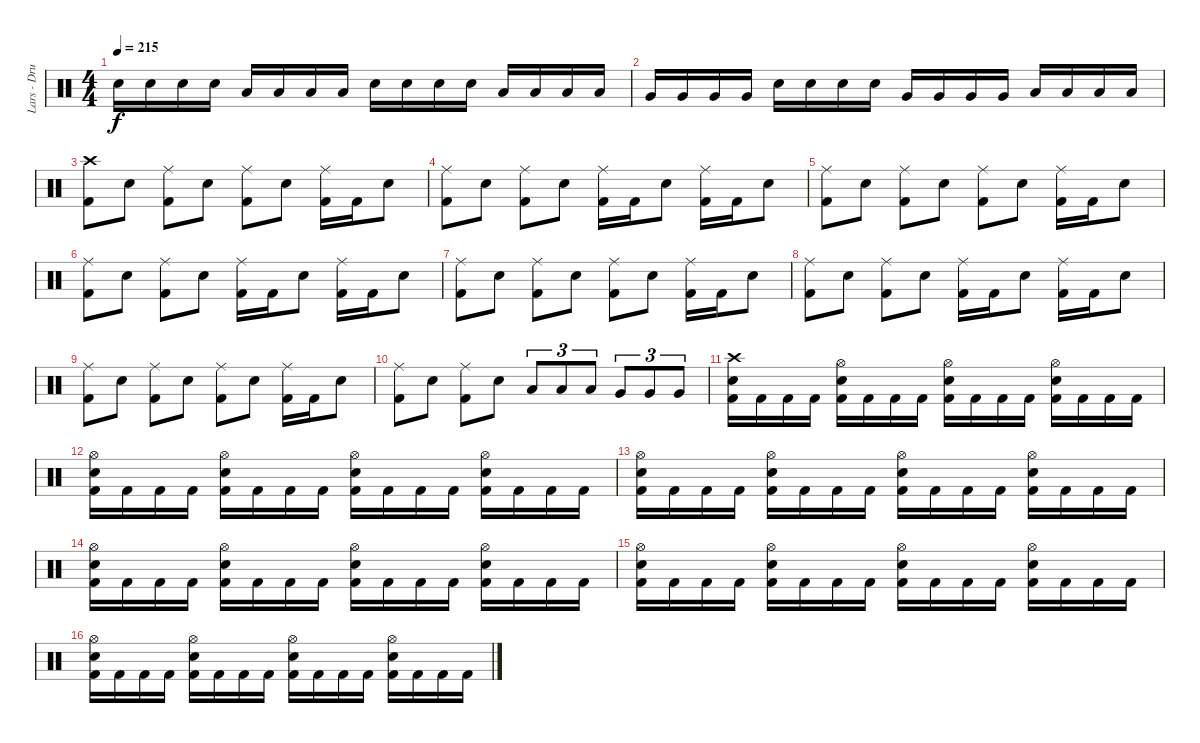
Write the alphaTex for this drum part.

\track ("Lars - Drums" "Lars - Dru") {instrument percussion}
\staff {score}
\articulation defaults
\ts (4 4)
\tempo 215
\clef neutral
\ks c "Electric Snare (hit)".16{dy f} "Electric Snare (hit)".16 "Electric Snare (hit)".16 "Electric Snare (hit)".16 "Low Tom (hit)".16 "Low Tom (hit)".16 "Low Tom (hit)".16 "Low Tom (hit)".16 "Electric Snare (hit)".16 "Electric Snare (hit)".16 "Electric Snare (hit)".16 "Electric Snare (hit)".16 "Low Tom (hit)".16 "Low Tom (hit)".16 "Low Tom (hit)".16 "Low Tom (hit)".16
|
"Very Low Tom (hit)".16 "Very Low Tom (hit)".16 "Very Low Tom (hit)".16 "Very Low Tom (hit)".16 "Electric Snare (hit)".16 "Electric Snare (hit)".16 "Electric Snare (hit)".16 "Electric Snare (hit)".16 "Very Low Tom (hit)".16 "Very Low Tom (hit)".16 "Very Low Tom (hit)".16 "Very Low Tom (hit)".16 "Low Floor Tom (hit)".16 "Low Floor Tom (hit)".16 "Low Floor Tom (hit)".16 "Low Floor Tom (hit)".16 |
("Kick (hit) 2" "Crash high (hit)").8 "Electric Snare (hit)".8 ("Kick (hit) 2" "Ride (middle)").8 "Electric Snare (hit)".8 ("Kick (hit) 2" "Ride (middle)").8 "Electric Snare (hit)".8 ("Kick (hit) 2" "Ride (middle)").16 "Kick (hit) 2".16 "Electric Snare (hit)".8 |
("Kick (hit) 2" "Ride (middle)").8 "Electric Snare (hit)".8 ("Kick (hit) 2" "Ride (middle)").8 "Electric Snare (hit)".8 ("Kick (hit) 2" "Ride (middle)").16 "Kick (hit) 2".16 "Electric Snare (hit)".8 ("Kick (hit) 2" "Ride (middle)").16 "Kick (hit) 2".16 "Electric Snare (hit)".8 |
("Kick (hit) 2" "Ride (middle)").8 "Electric Snare (hit)".8 ("Kick (hit) 2" "Ride (middle)").8 "Electric Snare (hit)".8 ("Kick (hit) 2" "Ride (middle)").8 "Electric Snare (hit)".8 ("Kick (hit) 2" "Ride (middle)").16 "Kick (hit) 2".16 "Electric Snare (hit)".8 |
("Kick (hit) 2" "Ride (middle)").8 "Electric Snare (hit)".8 ("Kick (hit) 2" "Ride (middle)").8 "Electric Snare (hit)".8 ("Kick (hit) 2" "Ride (middle)").16 "Kick (hit) 2".16 "Electric Snare (hit)".8 ("Kick (hit) 2" "Ride (middle)").16 "Kick (hit) 2".16 "Electric Snare (hit)".8 |
("Kick (hit) 2" "Ride (middle)").8 "Electric Snare (hit)".8 ("Kick (hit) 2" "Ride (middle)").8 "Electric Snare (hit)".8 ("Kick (hit) 2" "Ride (middle)").8 "Electric Snare (hit)".8 ("Kick (hit) 2" "Ride (middle)").16 "Kick (hit) 2".16 "Electric Snare (hit)".8 |
("Kick (hit) 2" "Ride (middle)").8 "Electric Snare (hit)".8 ("Kick (hit) 2" "Ride (middle)").8 "Electric Snare (hit)".8 ("Kick (hit) 2" "Ride (middle)").16 "Kick (hit) 2".16 "Electric Snare (hit)".8 ("Kick (hit) 2" "Ride (middle)").16 "Kick (hit) 2".16 "Electric Snare (hit)".8 |
("Kick (hit) 2" "Ride (middle)").8 "Electric Snare (hit)".8 ("Kick (hit) 2" "Ride (middle)").8 "Electric Snare (hit)".8 ("Kick (hit) 2" "Ride (middle)").8 "Electric Snare (hit)".8 ("Kick (hit) 2" "Ride (middle)").16 "Kick (hit) 2".16 "Electric Snare (hit)".8 |
("Kick (hit) 2" "Ride (middle)").8 "Electric Snare (hit)".8 ("Kick (hit) 2" "Ride (middle)").8 "Electric Snare (hit)".8 "Low Tom (hit)".8{tu (3 2)} "Low Tom (hit)".8{tu (3 2)} "Low Tom (hit)".8{tu (3 2)} "Very Low Tom (hit)".8{tu (3 2)} "Very Low Tom (hit)".8{tu (3 2)} "Very Low Tom (hit)".8{tu (3 2)} |
("Kick (hit) 2" "Electric Snare (hit)" "Crash high (hit)").16 "Kick (hit) 2".16 "Kick (hit) 2".16 "Kick (hit) 2".16 ("Kick (hit) 2" "Electric Snare (hit)" "Hi-Hat (open)").16 "Kick (hit) 2".16 "Kick (hit) 2".16 "Kick (hit) 2".16 ("Kick (hit) 2" "Electric Snare (hit)" "Hi-Hat (open)").16 "Kick (hit) 2".16 "Kick (hit) 2".16 "Kick (hit) 2".16 ("Kick (hit) 2" "Electric Snare (hit)" "Hi-Hat (open)").16 "Kick (hit) 2".16 "Kick (hit) 2".16 "Kick (hit) 2".16 |
("Kick (hit) 2" "Electric Snare (hit)" "Hi-Hat (open)").16 "Kick (hit) 2".16 "Kick (hit) 2".16 "Kick (hit) 2".16 ("Kick (hit) 2" "Electric Snare (hit)" "Hi-Hat (open)").16 "Kick (hit) 2".16 "Kick (hit) 2".16 "Kick (hit) 2".16 ("Kick (hit) 2" "Electric Snare (hit)" "Hi-Hat (open)").16 "Kick (hit) 2".16 "Kick (hit) 2".16 "Kick (hit) 2".16 ("Kick (hit) 2" "Electric Snare (hit)" "Hi-Hat (open)").16 "Kick (hit) 2".16 "Kick (hit) 2".16 "Kick (hit) 2".16 |
("Kick (hit) 2" "Electric Snare (hit)" "Hi-Hat (open)").16 "Kick (hit) 2".16 "Kick (hit) 2".16 "Kick (hit) 2".16 ("Kick (hit) 2" "Electric Snare (hit)" "Hi-Hat (open)").16 "Kick (hit) 2".16 "Kick (hit) 2".16 "Kick (hit) 2".16 ("Kick (hit) 2" "Electric Snare (hit)" "Hi-Hat (open)").16 "Kick (hit) 2".16 "Kick (hit) 2".16 "Kick (hit) 2".16 ("Kick (hit) 2" "Electric Snare (hit)" "Hi-Hat (open)").16 "Kick (hit) 2".16 "Kick (hit) 2".16 "Kick (hit) 2".16 |
("Kick (hit) 2" "Electric Snare (hit)" "Hi-Hat (open)").16 "Kick (hit) 2".16 "Kick (hit) 2".16 "Kick (hit) 2".16 ("Kick (hit) 2" "Electric Snare (hit)" "Hi-Hat (open)").16 "Kick (hit) 2".16 "Kick (hit) 2".16 "Kick (hit) 2".16 ("Kick (hit) 2" "Electric Snare (hit)" "Hi-Hat (open)").16 "Kick (hit) 2".16 "Kick (hit) 2".16 "Kick (hit) 2".16 ("Kick (hit) 2" "Electric Snare (hit)" "Hi-Hat (open)").16 "Kick (hit) 2".16 "Kick (hit) 2".16 "Kick (hit) 2".16 |
("Kick (hit) 2" "Electric Snare (hit)" "Hi-Hat (open)").16 "Kick (hit) 2".16 "Kick (hit) 2".16 "Kick (hit) 2".16 ("Kick (hit) 2" "Electric Snare (hit)" "Hi-Hat (open)").16 "Kick (hit) 2".16 "Kick (hit) 2".16 "Kick (hit) 2".16 ("Kick (hit) 2" "Electric Snare (hit)" "Hi-Hat (open)").16 "Kick (hit) 2".16 "Kick (hit) 2".16 "Kick (hit) 2".16 ("Kick (hit) 2" "Electric Snare (hit)" "Hi-Hat (open)").16 "Kick (hit) 2".16 "Kick (hit) 2".16 "Kick (hit) 2".16 |
("Kick (hit) 2" "Electric Snare (hit)" "Hi-Hat (open)").16 "Kick (hit) 2".16 "Kick (hit) 2".16 "Kick (hit) 2".16 ("Kick (hit) 2" "Electric Snare (hit)" "Hi-Hat (open)").16 "Kick (hit) 2".16 "Kick (hit) 2".16 "Kick (hit) 2".16 ("Kick (hit) 2" "Electric Snare (hit)" "Hi-Hat (open)").16 "Kick (hit) 2".16 "Kick (hit) 2".16 "Kick (hit) 2".16 ("Kick (hit) 2" "Electric Snare (hit)" "Hi-Hat (open)").16 "Kick (hit) 2".16 "Kick (hit) 2".16 "Kick (hit) 2".16
